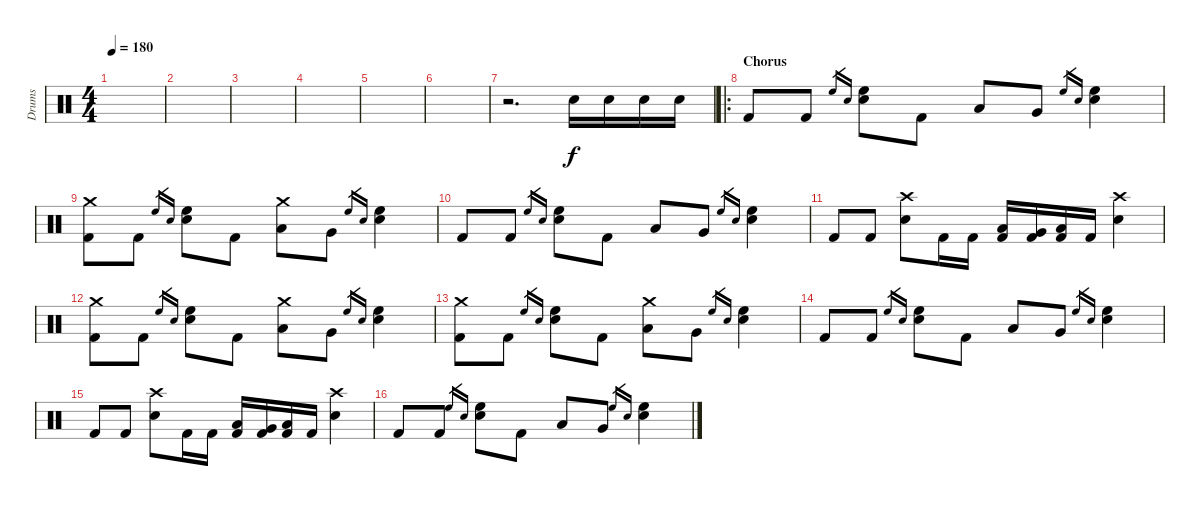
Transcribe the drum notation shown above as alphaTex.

\track ("Drums" "Drums") {instrument percussion}
\staff {score}
\articulation defaults
\ts (4 4)
\tempo 180
\clef neutral
\ks c
|
|
|
|
|
|
r.2{d} "Snare (hit) 2".16 "Snare (hit) 2".16 "Snare (hit) 2".16 "Snare (hit) 2".16 |
\ro
\section ("" "Chorus")
"Kick (hit) 2".8 "Kick (hit) 2".8 "High Floor Tom (hit)".16{gr} "Electric Snare (hit)".16{gr} ("High Floor Tom (hit)" "Electric Snare (hit)").8 "Kick (hit) 2".8 "Low Tom (hit)".8 "Very Low Tom (hit)".8 "High Floor Tom (hit)".16{gr} "Electric Snare (hit)".16{gr} ("High Floor Tom (hit)" "Electric Snare (hit)").4 |
("Crash medium (hit)" "Kick (hit) 2").8 "Kick (hit) 2".8 "High Floor Tom (hit)".16{gr} "Electric Snare (hit)".16{gr} ("High Floor Tom (hit)" "Electric Snare (hit)").8 "Kick (hit) 2".8 ("Crash medium (hit)" "Low Tom (hit)").8 "Very Low Tom (hit)".8 "High Floor Tom (hit)".16{gr} "Electric Snare (hit)".16{gr} ("High Floor Tom (hit)" "Electric Snare (hit)").4 |
"Kick (hit) 2".8 "Kick (hit) 2".8 "High Floor Tom (hit)".16{gr} "Electric Snare (hit)".16{gr} ("High Floor Tom (hit)" "Electric Snare (hit)").8 "Kick (hit) 2".8 "Low Tom (hit)".8 "Very Low Tom (hit)".8 "High Floor Tom (hit)".16{gr} "Electric Snare (hit)".16{gr} ("High Floor Tom (hit)" "Electric Snare (hit)").4 |
"Kick (hit) 2".8 "Kick (hit) 2".8 ("Crash high (hit)" "Electric Snare (hit)").8 "Kick (hit) 2".16 "Kick (hit) 2".16 ("Low Tom (hit)" "Kick (hit) 2").16 ("Very Low Tom (hit)" "Kick (hit) 2").16 ("Low Floor Tom (hit)" "Kick (hit) 2").16 "Kick (hit) 2".16 ("Crash high (hit)" "Electric Snare (hit)").4 |
("Crash medium (hit)" "Kick (hit) 2").8 "Kick (hit) 2".8 "High Floor Tom (hit)".16{gr} "Electric Snare (hit)".16{gr} ("High Floor Tom (hit)" "Electric Snare (hit)").8 "Kick (hit) 2".8 ("Crash medium (hit)" "Low Tom (hit)").8 "Very Low Tom (hit)".8 "High Floor Tom (hit)".16{gr} "Electric Snare (hit)".16{gr} ("High Floor Tom (hit)" "Electric Snare (hit)").4 |
("Crash medium (hit)" "Kick (hit) 2").8 "Kick (hit) 2".8 "High Floor Tom (hit)".16{gr} "Electric Snare (hit)".16{gr} ("High Floor Tom (hit)" "Electric Snare (hit)").8 "Kick (hit) 2".8 ("Crash medium (hit)" "Low Tom (hit)").8 "Very Low Tom (hit)".8 "High Floor Tom (hit)".16{gr} "Electric Snare (hit)".16{gr} ("High Floor Tom (hit)" "Electric Snare (hit)").4 |
"Kick (hit) 2".8 "Kick (hit) 2".8 "High Floor Tom (hit)".16{gr} "Electric Snare (hit)".16{gr} ("High Floor Tom (hit)" "Electric Snare (hit)").8 "Kick (hit) 2".8 "Low Tom (hit)".8 "Very Low Tom (hit)".8 "High Floor Tom (hit)".16{gr} "Electric Snare (hit)".16{gr} ("High Floor Tom (hit)" "Electric Snare (hit)").4 |
"Kick (hit) 2".8 "Kick (hit) 2".8 ("Crash high (hit)" "Electric Snare (hit)").8 "Kick (hit) 2".16 "Kick (hit) 2".16 ("Low Tom (hit)" "Kick (hit) 2").16 ("Very Low Tom (hit)" "Kick (hit) 2").16 ("Low Floor Tom (hit)" "Kick (hit) 2").16 "Kick (hit) 2".16 ("Crash high (hit)" "Electric Snare (hit)").4 |
"Kick (hit) 2".8 "Kick (hit) 2".8 "High Floor Tom (hit)".16{gr} "Electric Snare (hit)".16{gr} ("High Floor Tom (hit)" "Electric Snare (hit)").8 "Kick (hit) 2".8 "Low Tom (hit)".8 "Very Low Tom (hit)".8 "High Floor Tom (hit)".16{gr} "Electric Snare (hit)".16{gr} ("High Floor Tom (hit)" "Electric Snare (hit)").4
